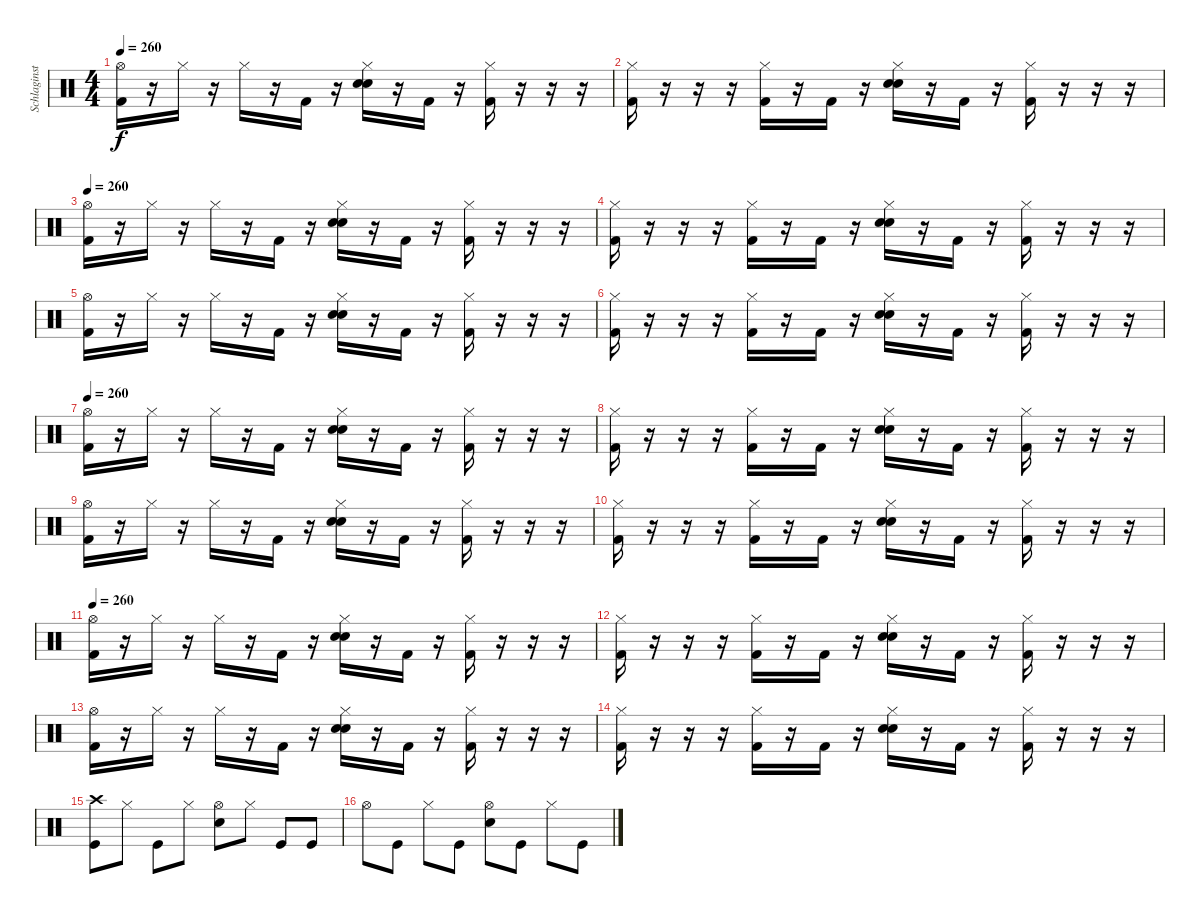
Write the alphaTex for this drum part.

\track ("Schlaginstrumente - Auswahl" "Schlaginst") {instrument percussion}
\staff {score}
\articulation defaults
\ts (4 4)
\tempo 260
\clef neutral
\ks c
("Hi-Hat (open)" "Kick (hit) 2").16{dy f} r.16 "Hi-Hat (closed)".16 r.16 "Hi-Hat (closed)".16 r.16 "Kick (hit) 2".16 r.16 ("Hi-Hat (closed)" "Electric Snare (hit)" "Electric Snare (hit)").16 r.16 "Kick (hit) 2".16 r.16 ("Hi-Hat (closed)" "Kick (hit) 2").16 r.16 r.16 r.16 |
("Hi-Hat (closed)" "Kick (hit) 2").16 r.16 r.16 r.16 ("Hi-Hat (closed)" "Kick (hit) 2").16 r.16 "Kick (hit) 2".16 r.16 ("Hi-Hat (closed)" "Electric Snare (hit)" "Electric Snare (hit)").16 r.16 "Kick (hit) 2".16 r.16 ("Hi-Hat (closed)" "Kick (hit) 2").16 r.16 r.16 r.16 |
\tempo 260
("Hi-Hat (open)" "Kick (hit) 2").16 r.16 "Hi-Hat (closed)".16 r.16 "Hi-Hat (closed)".16 r.16 "Kick (hit) 2".16 r.16 ("Hi-Hat (closed)" "Electric Snare (hit)" "Electric Snare (hit)").16 r.16 "Kick (hit) 2".16 r.16 ("Hi-Hat (closed)" "Kick (hit) 2").16 r.16 r.16 r.16 |
("Hi-Hat (closed)" "Kick (hit) 2").16 r.16 r.16 r.16 ("Hi-Hat (closed)" "Kick (hit) 2").16 r.16 "Kick (hit) 2".16 r.16 ("Hi-Hat (closed)" "Electric Snare (hit)" "Electric Snare (hit)").16 r.16 "Kick (hit) 2".16 r.16 ("Hi-Hat (closed)" "Kick (hit) 2").16 r.16 r.16 r.16 |
("Hi-Hat (open)" "Kick (hit) 2").16 r.16 "Hi-Hat (closed)".16 r.16 "Hi-Hat (closed)".16 r.16 "Kick (hit) 2".16 r.16 ("Hi-Hat (closed)" "Electric Snare (hit)" "Electric Snare (hit)").16 r.16 "Kick (hit) 2".16 r.16 ("Hi-Hat (closed)" "Kick (hit) 2").16 r.16 r.16 r.16 |
("Hi-Hat (closed)" "Kick (hit) 2").16 r.16 r.16 r.16 ("Hi-Hat (closed)" "Kick (hit) 2").16 r.16 "Kick (hit) 2".16 r.16 ("Hi-Hat (closed)" "Electric Snare (hit)" "Electric Snare (hit)").16 r.16 "Kick (hit) 2".16 r.16 ("Hi-Hat (closed)" "Kick (hit) 2").16 r.16 r.16 r.16 |
\tempo 260
("Hi-Hat (open)" "Kick (hit) 2").16 r.16 "Hi-Hat (closed)".16 r.16 "Hi-Hat (closed)".16 r.16 "Kick (hit) 2".16 r.16 ("Hi-Hat (closed)" "Electric Snare (hit)" "Electric Snare (hit)").16 r.16 "Kick (hit) 2".16 r.16 ("Hi-Hat (closed)" "Kick (hit) 2").16 r.16 r.16 r.16 |
("Hi-Hat (closed)" "Kick (hit) 2").16 r.16 r.16 r.16 ("Hi-Hat (closed)" "Kick (hit) 2").16 r.16 "Kick (hit) 2".16 r.16 ("Hi-Hat (closed)" "Electric Snare (hit)" "Electric Snare (hit)").16 r.16 "Kick (hit) 2".16 r.16 ("Hi-Hat (closed)" "Kick (hit) 2").16 r.16 r.16 r.16 |
("Hi-Hat (open)" "Kick (hit) 2").16 r.16 "Hi-Hat (closed)".16 r.16 "Hi-Hat (closed)".16 r.16 "Kick (hit) 2".16 r.16 ("Hi-Hat (closed)" "Electric Snare (hit)" "Electric Snare (hit)").16 r.16 "Kick (hit) 2".16 r.16 ("Hi-Hat (closed)" "Kick (hit) 2").16 r.16 r.16 r.16 |
("Hi-Hat (closed)" "Kick (hit) 2").16 r.16 r.16 r.16 ("Hi-Hat (closed)" "Kick (hit) 2").16 r.16 "Kick (hit) 2".16 r.16 ("Hi-Hat (closed)" "Electric Snare (hit)" "Electric Snare (hit)").16 r.16 "Kick (hit) 2".16 r.16 ("Hi-Hat (closed)" "Kick (hit) 2").16 r.16 r.16 r.16 |
\tempo 260
("Hi-Hat (open)" "Kick (hit) 2").16 r.16 "Hi-Hat (closed)".16 r.16 "Hi-Hat (closed)".16 r.16 "Kick (hit) 2".16 r.16 ("Hi-Hat (closed)" "Electric Snare (hit)" "Electric Snare (hit)").16 r.16 "Kick (hit) 2".16 r.16 ("Hi-Hat (closed)" "Kick (hit) 2").16 r.16 r.16 r.16 |
("Hi-Hat (closed)" "Kick (hit) 2").16 r.16 r.16 r.16 ("Hi-Hat (closed)" "Kick (hit) 2").16 r.16 "Kick (hit) 2".16 r.16 ("Hi-Hat (closed)" "Electric Snare (hit)" "Electric Snare (hit)").16 r.16 "Kick (hit) 2".16 r.16 ("Hi-Hat (closed)" "Kick (hit) 2").16 r.16 r.16 r.16 |
("Hi-Hat (open)" "Kick (hit) 2").16 r.16 "Hi-Hat (closed)".16 r.16 "Hi-Hat (closed)".16 r.16 "Kick (hit) 2".16 r.16 ("Hi-Hat (closed)" "Electric Snare (hit)" "Electric Snare (hit)").16 r.16 "Kick (hit) 2".16 r.16 ("Hi-Hat (closed)" "Kick (hit) 2").16 r.16 r.16 r.16 |
("Hi-Hat (closed)" "Kick (hit) 2").16 r.16 r.16 r.16 ("Hi-Hat (closed)" "Kick (hit) 2").16 r.16 "Kick (hit) 2".16 r.16 ("Hi-Hat (closed)" "Electric Snare (hit)" "Electric Snare (hit)").16 r.16 "Kick (hit) 2".16 r.16 ("Hi-Hat (closed)" "Kick (hit) 2").16 r.16 r.16 r.16 |
("Crash high (hit)" "Kick (hit)").8 "Hi-Hat (closed)".8 "Kick (hit)".8 "Hi-Hat (closed)".8 ("Hi-Hat (open)" "Electric Snare (hit)").8 "Hi-Hat (closed)".8 "Kick (hit)".8 "Kick (hit)".8 |
"Hi-Hat (open)".8 "Kick (hit)".8 "Hi-Hat (closed)".8 "Kick (hit)".8 ("Hi-Hat (open)" "Electric Snare (hit)").8 "Kick (hit)".8 "Hi-Hat (closed)".8 "Kick (hit)".8
